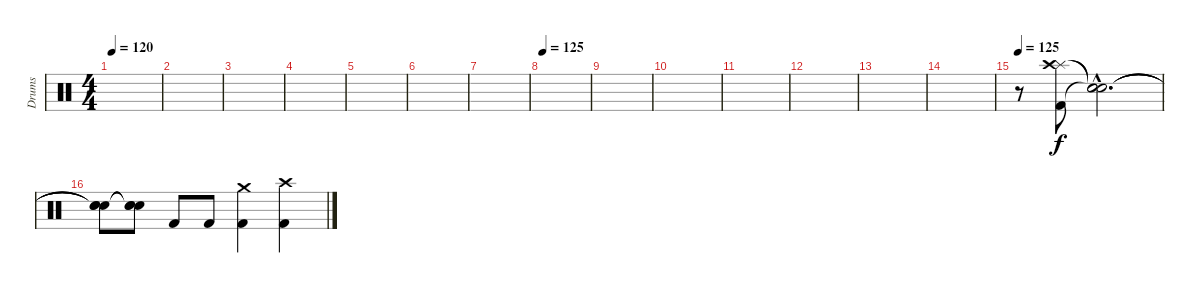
\track ("Drums" "Drums") {instrument percussion}
\staff {score}
\articulation defaults
\ts (4 4)
\tempo 120
\clef neutral
\ks c
|
|
|
|
|
|
|
\tempo 125
|
|
|
|
|
|
|
\tempo 125
r.8 ("Splash (hit)" "Crash high (hit)" "Kick (hit) 2").8 ("Snare (hit)"{hac t} "Snare (hit)"{hac t} "Snare (hit)"{hac t}).2{d} |
("Snare (hit)"{t} "Snare (hit)"{t} "Snare (hit)"{t}).8 ("Snare (hit)"{t} "Snare (hit)"{t} "Snare (hit)"{t}).8 "Kick (hit) 2".8 "Kick (hit) 2".8 ("Crash medium (hit)" "Kick (hit) 2").4 ("Crash high (hit)" "Kick (hit) 2").4
